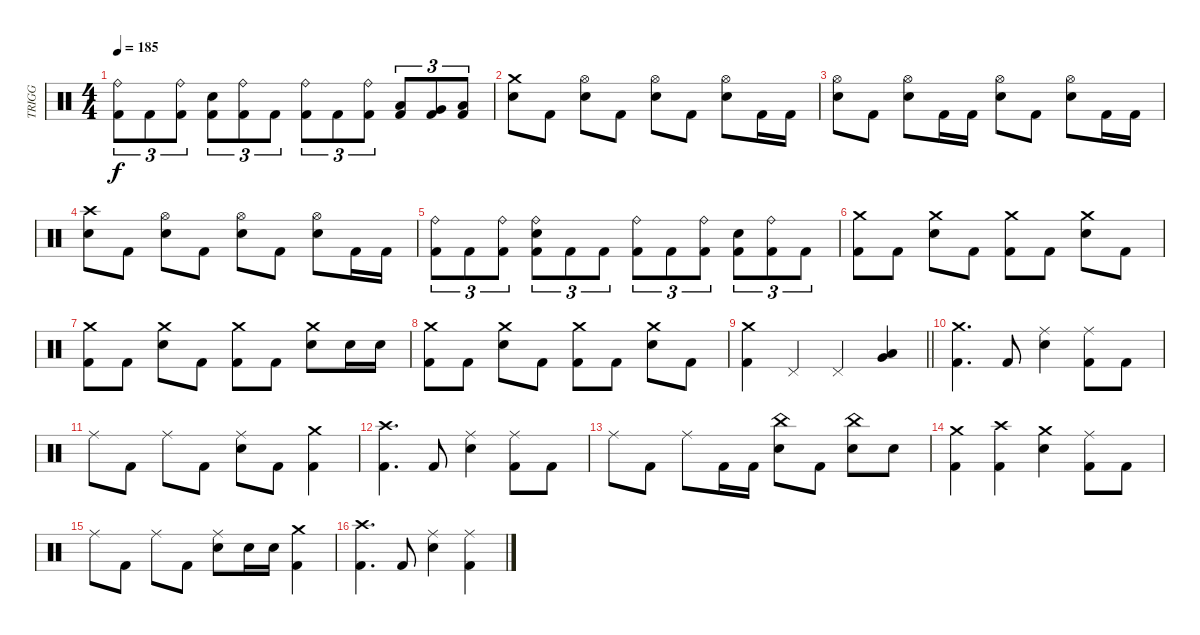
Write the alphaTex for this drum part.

\track ("TRIGG" "TRIGG") {instrument percussion}
\staff {score}
\articulation defaults
\ts (4 4)
\tempo 185
\clef neutral
\ks c
("Ride (bell)" "Kick (hit) 2").8{tu (3 2) dy f} "Kick (hit) 2".8{tu (3 2)} ("Ride (bell)" "Kick (hit) 2").8{tu (3 2)} ("Electric Snare (hit)" "Kick (hit) 2").8{tu (3 2)} ("Ride (bell)" "Kick (hit) 2").8{tu (3 2)} "Kick (hit) 2".8{tu (3 2)} ("Ride (bell)" "Kick (hit) 2").8{tu (3 2)} "Kick (hit) 2".8{tu (3 2)} ("Ride (bell)" "Kick (hit) 2").8{tu (3 2)} ("Low Tom (hit)" "Kick (hit) 2").8{tu (3 2)} ("Very Low Tom (hit)" "Kick (hit) 2").8{tu (3 2)} ("Low Floor Tom (hit)" "Kick (hit) 2").8{tu (3 2)} |
("Crash medium (hit)" "Electric Snare (hit)").8 "Kick (hit) 2".8 ("Hi-Hat (open)" "Electric Snare (hit)").8 "Kick (hit) 2".8 ("Hi-Hat (open)" "Electric Snare (hit)").8 "Kick (hit) 2".8 ("Hi-Hat (open)" "Electric Snare (hit)").8 "Kick (hit) 2".16 "Kick (hit) 2".16 |
("Hi-Hat (open)" "Electric Snare (hit)").8 "Kick (hit) 2".8 ("Hi-Hat (open)" "Electric Snare (hit)").8 "Kick (hit) 2".16 "Kick (hit) 2".16 ("Hi-Hat (open)" "Electric Snare (hit)").8 "Kick (hit) 2".8 ("Hi-Hat (open)" "Electric Snare (hit)").8 "Kick (hit) 2".16 "Kick (hit) 2".16 |
("Crash high (hit)" "Electric Snare (hit)").8 "Kick (hit) 2".8 ("Hi-Hat (open)" "Electric Snare (hit)").8 "Kick (hit) 2".8 ("Hi-Hat (open)" "Electric Snare (hit)").8 "Kick (hit) 2".8 ("Hi-Hat (open)" "Electric Snare (hit)").8 "Kick (hit) 2".16 "Kick (hit) 2".16 |
("Ride (bell)" "Kick (hit) 2").8{tu (3 2)} "Kick (hit) 2".8{tu (3 2)} ("Ride (bell)" "Kick (hit) 2").8{tu (3 2)} ("Ride (bell)" "Electric Snare (hit)" "Kick (hit) 2").8{tu (3 2)} "Kick (hit) 2".8{tu (3 2)} "Kick (hit) 2".8{tu (3 2)} ("Ride (bell)" "Kick (hit) 2").8{tu (3 2)} "Kick (hit) 2".8{tu (3 2)} ("Ride (bell)" "Kick (hit) 2").8{tu (3 2)} ("Electric Snare (hit)" "Kick (hit) 2").8{tu (3 2)} ("Ride (bell)" "Kick (hit) 2").8{tu (3 2)} "Kick (hit) 2".8{tu (3 2)} |
("Crash medium (hit)" "Kick (hit) 2").8 "Kick (hit) 2".8 ("Crash medium (hit)" "Electric Snare (hit)").8 "Kick (hit) 2".8 ("Crash medium (hit)" "Kick (hit) 2").8 "Kick (hit) 2".8 ("Crash medium (hit)" "Electric Snare (hit)").8 "Kick (hit) 2".8 |
("Crash medium (hit)" "Kick (hit) 2").8 "Kick (hit) 2".8 ("Crash medium (hit)" "Electric Snare (hit)").8 "Kick (hit) 2".8 ("Crash medium (hit)" "Kick (hit) 2").8 "Kick (hit) 2".8 ("Crash medium (hit)" "Electric Snare (hit)").8 "Electric Snare (hit)".16 "Electric Snare (hit)".16 |
("Crash medium (hit)" "Kick (hit) 2").8 "Kick (hit) 2".8 ("Crash medium (hit)" "Electric Snare (hit)").8 "Kick (hit) 2".8 ("Crash medium (hit)" "Kick (hit) 2").8 "Kick (hit) 2".8 ("Crash medium (hit)" "Electric Snare (hit)").8 "Kick (hit) 2".8 |
\barLineRight lightlight
("Crash medium (hit)" "Kick (hit) 2").4 "Pedal Hi-Hat (hit)".4 "Pedal Hi-Hat (hit)".4 ("Very Low Tom (hit)" "Low Floor Tom (hit)").4 |
("Crash medium (hit)" "Kick (hit) 2").4{d} "Kick (hit) 2".8 ("Ride (middle)" "Electric Snare (hit)").4 ("Ride (middle)" "Kick (hit) 2").8 "Kick (hit) 2".8 |
"Ride (middle)".8 "Kick (hit) 2".8 "Ride (middle)".8 "Kick (hit) 2".8 ("Ride (middle)" "Electric Snare (hit)").8 "Kick (hit) 2".8 ("Crash medium (hit)" "Kick (hit) 2").4 |
("Crash high (hit)" "Kick (hit) 2").4{d} "Kick (hit) 2".8 ("Ride (middle)" "Electric Snare (hit)").4 ("Ride (middle)" "Kick (hit) 2").8 "Kick (hit) 2".8 |
"Ride (middle)".8 "Kick (hit) 2".8 "Ride (middle)".8 "Kick (hit) 2".16 "Kick (hit) 2".16 ("China (hit)" "Electric Snare (hit)").8 "Kick (hit) 2".8 ("China (hit)" "Electric Snare (hit)").8 "Electric Snare (hit)".8 |
("Crash medium (hit)" "Kick (hit) 2").4 ("Crash high (hit)" "Kick (hit) 2").4 ("Crash medium (hit)" "Electric Snare (hit)").4 ("Ride (middle)" "Kick (hit) 2").8 "Kick (hit) 2".8 |
"Ride (middle)".8 "Kick (hit) 2".8 "Ride (middle)".8 "Kick (hit) 2".8 ("Ride (middle)" "Electric Snare (hit)").8 "Electric Snare (hit)".16 "Electric Snare (hit)".16 ("Crash medium (hit)" "Kick (hit) 2").4 |
("Crash high (hit)" "Kick (hit) 2").4{d} "Kick (hit) 2".8 ("Ride (middle)" "Electric Snare (hit)").4 ("Ride (middle)" "Kick (hit) 2").4
